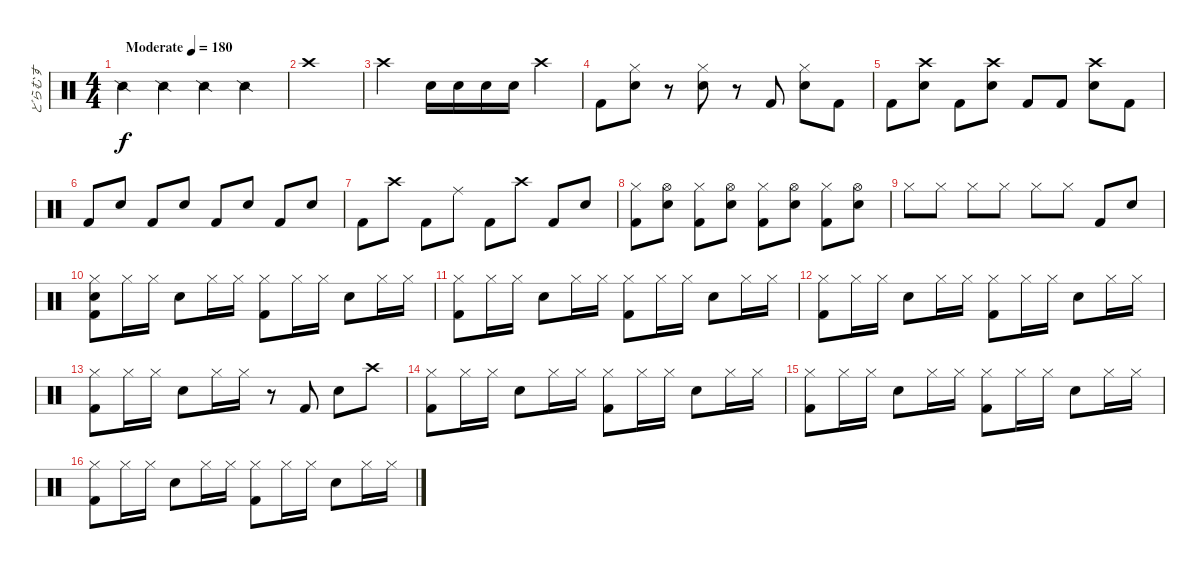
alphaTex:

\track ("どらむす" "どらむす") {instrument percussion}
\staff {score}
\articulation defaults
\ts (4 4)
\tempo (180 "Moderate")
\clef neutral
\ks c "Snare (side stick) 2".4{dy f} "Snare (side stick) 2".4 "Snare (side stick) 2".4 "Snare (side stick) 2".4
|
"Crash high (hit)".1 |
"Crash high (hit)".2 "Electric Snare (hit)".16 "Electric Snare (hit)".16 "Electric Snare (hit)".16 "Electric Snare (hit)".16 "Crash high (hit)".4 |
"Kick (hit) 2".8 ("Hi-Hat (closed)" "Electric Snare (hit)").8 r.8 ("Hi-Hat (closed)" "Electric Snare (hit)").8 r.8 "Kick (hit) 2".8 ("Hi-Hat (closed)" "Electric Snare (hit)").8 "Kick (hit) 2".8 |
"Kick (hit) 2".8 ("Crash high (hit)" "Electric Snare (hit)").8 "Kick (hit) 2".8 ("Crash high (hit)" "Electric Snare (hit)").8 "Kick (hit) 2".8 "Kick (hit) 2".8 ("Crash high (hit)" "Electric Snare (hit)").8 "Kick (hit) 2".8 |
"Kick (hit) 2".8 "Electric Snare (hit)".8 "Kick (hit) 2".8 "Electric Snare (hit)".8 "Kick (hit) 2".8 "Electric Snare (hit)".8 "Kick (hit) 2".8 "Electric Snare (hit)".8 |
"Kick (hit) 2".8 "Crash high (hit)".8 "Kick (hit) 2".8 "Ride (middle)".8 "Kick (hit) 2".8 "Crash high (hit)".8 "Kick (hit) 2".8 "Electric Snare (hit)".8 |
("Hi-Hat (closed)" "Kick (hit) 2").8 ("Hi-Hat (open)" "Electric Snare (hit)").8 ("Hi-Hat (closed)" "Kick (hit) 2").8 ("Hi-Hat (open)" "Electric Snare (hit)").8 ("Hi-Hat (closed)" "Kick (hit) 2").8 ("Hi-Hat (open)" "Electric Snare (hit)").8 ("Hi-Hat (closed)" "Kick (hit) 2").8 ("Hi-Hat (open)" "Electric Snare (hit)").8 |
"Hi-Hat (closed)".8 "Hi-Hat (closed)".8 "Hi-Hat (closed)".8 "Hi-Hat (closed)".8 "Hi-Hat (closed)".8 "Hi-Hat (closed)".8 "Kick (hit) 2".8 "Electric Snare (hit)".8 |
("Hi-Hat (closed)" "Snare (hit)" "Kick (hit) 2").8 "Hi-Hat (closed)".16 "Hi-Hat (closed)".16 "Electric Snare (hit)".8 "Hi-Hat (closed)".16 "Hi-Hat (closed)".16 ("Hi-Hat (closed)" "Kick (hit) 2").8 "Hi-Hat (closed)".16 "Hi-Hat (closed)".16 "Electric Snare (hit)".8 "Hi-Hat (closed)".16 "Hi-Hat (closed)".16 |
("Hi-Hat (closed)" "Kick (hit) 2").8 "Hi-Hat (closed)".16 "Hi-Hat (closed)".16 "Electric Snare (hit)".8 "Hi-Hat (closed)".16 "Hi-Hat (closed)".16 ("Hi-Hat (closed)" "Kick (hit) 2").8 "Hi-Hat (closed)".16 "Hi-Hat (closed)".16 "Electric Snare (hit)".8 "Hi-Hat (closed)".16 "Hi-Hat (closed)".16 |
("Hi-Hat (closed)" "Kick (hit) 2").8 "Hi-Hat (closed)".16 "Hi-Hat (closed)".16 "Electric Snare (hit)".8 "Hi-Hat (closed)".16 "Hi-Hat (closed)".16 ("Hi-Hat (closed)" "Kick (hit) 2").8 "Hi-Hat (closed)".16 "Hi-Hat (closed)".16 "Electric Snare (hit)".8 "Hi-Hat (closed)".16 "Hi-Hat (closed)".16 |
("Hi-Hat (closed)" "Kick (hit) 2").8 "Hi-Hat (closed)".16 "Hi-Hat (closed)".16 "Electric Snare (hit)".8 "Hi-Hat (closed)".16 "Hi-Hat (closed)".16 r.8 "Kick (hit) 2".8 "Electric Snare (hit)".8 "Crash high (hit)".8 |
("Hi-Hat (closed)" "Kick (hit) 2").8 "Hi-Hat (closed)".16 "Hi-Hat (closed)".16 "Electric Snare (hit)".8 "Hi-Hat (closed)".16 "Hi-Hat (closed)".16 ("Hi-Hat (closed)" "Kick (hit) 2").8 "Hi-Hat (closed)".16 "Hi-Hat (closed)".16 "Electric Snare (hit)".8 "Hi-Hat (closed)".16 "Hi-Hat (closed)".16 |
("Hi-Hat (closed)" "Kick (hit) 2").8 "Hi-Hat (closed)".16 "Hi-Hat (closed)".16 "Electric Snare (hit)".8 "Hi-Hat (closed)".16 "Hi-Hat (closed)".16 ("Hi-Hat (closed)" "Kick (hit) 2").8 "Hi-Hat (closed)".16 "Hi-Hat (closed)".16 "Electric Snare (hit)".8 "Hi-Hat (closed)".16 "Hi-Hat (closed)".16 |
("Hi-Hat (closed)" "Kick (hit) 2").8 "Hi-Hat (closed)".16 "Hi-Hat (closed)".16 "Electric Snare (hit)".8 "Hi-Hat (closed)".16 "Hi-Hat (closed)".16 ("Hi-Hat (closed)" "Kick (hit) 2").8 "Hi-Hat (closed)".16 "Hi-Hat (closed)".16 "Electric Snare (hit)".8 "Hi-Hat (closed)".16 "Hi-Hat (closed)".16
